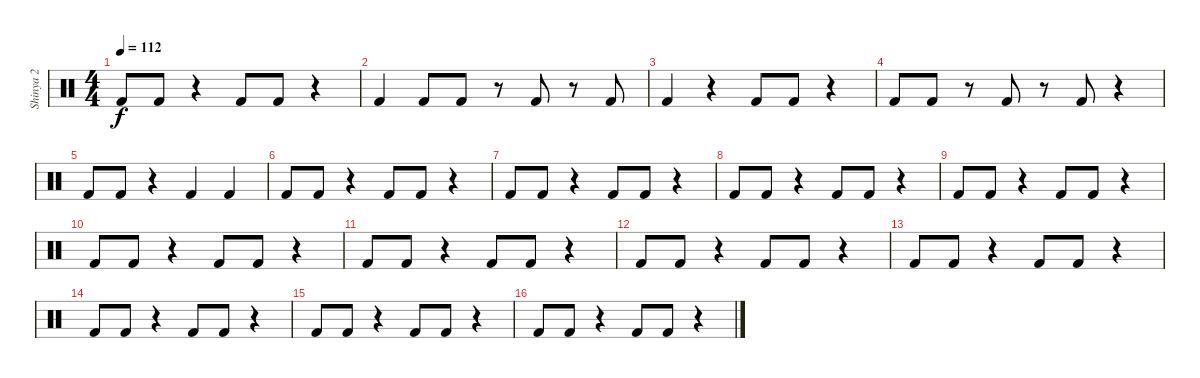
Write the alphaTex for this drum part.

\track ("Shinya 2" "Shinya 2") {instrument percussion}
\staff {score}
\articulation defaults
\ts (4 4)
\tempo 112
\clef neutral
\ks c "Kick (hit) 2".8{dy f} "Kick (hit) 2".8
r.4 "Kick (hit) 2".8 "Kick (hit) 2".8 r.4 |
"Kick (hit) 2".4 "Kick (hit) 2".8 "Kick (hit) 2".8 r.8 "Kick (hit) 2".8 r.8 "Kick (hit) 2".8 |
"Kick (hit) 2".4 r.4 "Kick (hit) 2".8 "Kick (hit) 2".8 r.4 |
"Kick (hit) 2".8 "Kick (hit) 2".8 r.8 "Kick (hit) 2".8 r.8 "Kick (hit) 2".8 r.4 |
"Kick (hit) 2".8 "Kick (hit) 2".8 r.4 "Kick (hit) 2".4 "Kick (hit) 2".4 |
"Kick (hit) 2".8 "Kick (hit) 2".8 r.4 "Kick (hit) 2".8 "Kick (hit) 2".8 r.4 |
"Kick (hit) 2".8 "Kick (hit) 2".8 r.4 "Kick (hit) 2".8 "Kick (hit) 2".8 r.4 |
"Kick (hit) 2".8 "Kick (hit) 2".8 r.4 "Kick (hit) 2".8 "Kick (hit) 2".8 r.4 |
"Kick (hit) 2".8 "Kick (hit) 2".8 r.4 "Kick (hit) 2".8 "Kick (hit) 2".8 r.4 |
"Kick (hit) 2".8 "Kick (hit) 2".8 r.4 "Kick (hit) 2".8 "Kick (hit) 2".8 r.4 |
"Kick (hit) 2".8 "Kick (hit) 2".8 r.4 "Kick (hit) 2".8 "Kick (hit) 2".8 r.4 |
"Kick (hit) 2".8 "Kick (hit) 2".8 r.4 "Kick (hit) 2".8 "Kick (hit) 2".8 r.4 |
"Kick (hit) 2".8 "Kick (hit) 2".8 r.4 "Kick (hit) 2".8 "Kick (hit) 2".8 r.4 |
"Kick (hit) 2".8 "Kick (hit) 2".8 r.4 "Kick (hit) 2".8 "Kick (hit) 2".8 r.4 |
"Kick (hit) 2".8 "Kick (hit) 2".8 r.4 "Kick (hit) 2".8 "Kick (hit) 2".8 r.4 |
"Kick (hit) 2".8 "Kick (hit) 2".8 r.4 "Kick (hit) 2".8 "Kick (hit) 2".8 r.4
